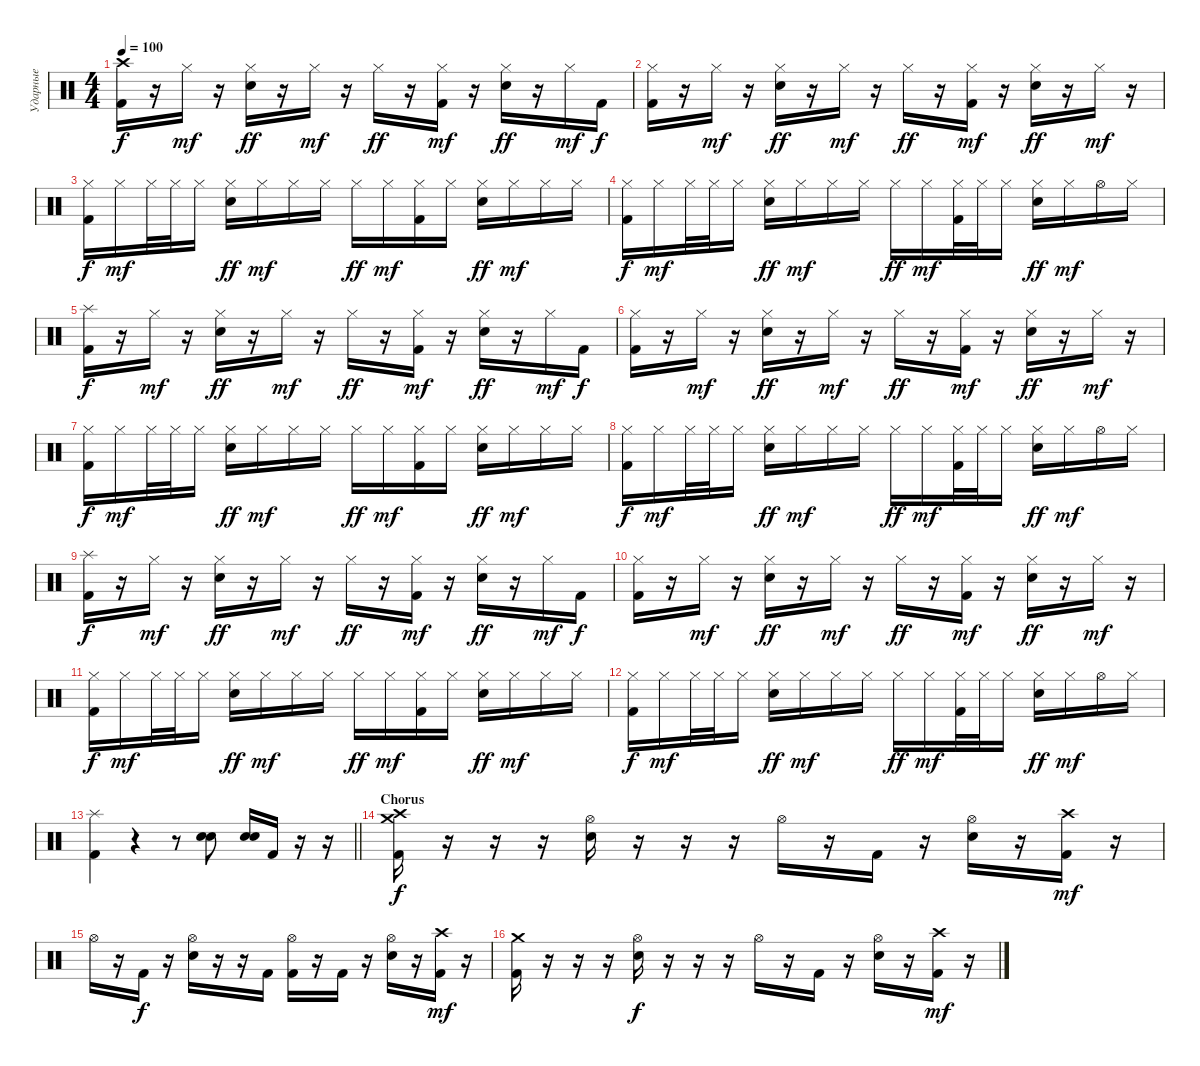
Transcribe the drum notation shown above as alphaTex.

\track ("Ударные" "Ударные") {instrument percussion}
\staff {score}
\articulation defaults
\ts (4 4)
\tempo 100
\clef neutral
\ks c
("Crash high (hit)" "Kick (hit) 2").16{dy f} r.16 "Hi-Hat (closed)".16{dy mf} r.16 ("Hi-Hat (closed)" "Electric Snare (hit)").16{dy ff} r.16 "Hi-Hat (closed)".16{dy mf} r.16 "Hi-Hat (closed)".16{dy ff} r.16 ("Hi-Hat (closed)" "Kick (hit) 2").16{dy mf} r.16 ("Hi-Hat (closed)" "Electric Snare (hit)").16{dy ff} r.16 "Hi-Hat (closed)".16{dy mf} "Kick (hit) 2".16{dy f} |
("Hi-Hat (closed)" "Kick (hit) 2").16 r.16 "Hi-Hat (closed)".16{dy mf} r.16 ("Hi-Hat (closed)" "Electric Snare (hit)").16{dy ff} r.16 "Hi-Hat (closed)".16{dy mf} r.16 "Hi-Hat (closed)".16{dy ff} r.16 ("Hi-Hat (closed)" "Kick (hit) 2").16{dy mf} r.16 ("Hi-Hat (closed)" "Electric Snare (hit)").16{dy ff} r.16 "Hi-Hat (closed)".16{dy mf} r.16 |
("Hi-Hat (closed)" "Kick (hit) 2").16{dy f} "Hi-Hat (closed)".16{dy mf} "Hi-Hat (closed)".32 "Hi-Hat (closed)".32 "Hi-Hat (closed)".16 ("Hi-Hat (closed)" "Electric Snare (hit)").16{dy ff} "Hi-Hat (closed)".16{dy mf} "Hi-Hat (closed)".16 "Hi-Hat (closed)".16 "Hi-Hat (closed)".16{dy ff} "Hi-Hat (closed)".16{dy mf} ("Hi-Hat (closed)" "Kick (hit) 2").16 "Hi-Hat (closed)".16 ("Hi-Hat (closed)" "Electric Snare (hit)").16{dy ff} "Hi-Hat (closed)".16{dy mf} "Hi-Hat (closed)".16 "Hi-Hat (closed)".16 |
("Hi-Hat (closed)" "Kick (hit) 2").16{dy f} "Hi-Hat (closed)".16{dy mf} "Hi-Hat (closed)".32 "Hi-Hat (closed)".32 "Hi-Hat (closed)".16 ("Hi-Hat (closed)" "Electric Snare (hit)").16{dy ff} "Hi-Hat (closed)".16{dy mf} "Hi-Hat (closed)".16 "Hi-Hat (closed)".16 "Hi-Hat (closed)".16{dy ff} "Hi-Hat (closed)".16{dy mf} ("Hi-Hat (closed)" "Kick (hit) 2").32 "Hi-Hat (closed)".32 "Hi-Hat (closed)".16 ("Hi-Hat (closed)" "Electric Snare (hit)").16{dy ff} "Hi-Hat (closed)".16{dy mf} "Hi-Hat (open)".16 "Hi-Hat (closed)".16 |
("Splash (hit)" "Kick (hit) 2").16{dy f} r.16 "Hi-Hat (closed)".16{dy mf} r.16 ("Hi-Hat (closed)" "Electric Snare (hit)").16{dy ff} r.16 "Hi-Hat (closed)".16{dy mf} r.16 "Hi-Hat (closed)".16{dy ff} r.16 ("Hi-Hat (closed)" "Kick (hit) 2").16{dy mf} r.16 ("Hi-Hat (closed)" "Electric Snare (hit)").16{dy ff} r.16 "Hi-Hat (closed)".16{dy mf} "Kick (hit) 2".16{dy f} |
("Hi-Hat (closed)" "Kick (hit) 2").16 r.16 "Hi-Hat (closed)".16{dy mf} r.16 ("Hi-Hat (closed)" "Electric Snare (hit)").16{dy ff} r.16 "Hi-Hat (closed)".16{dy mf} r.16 "Hi-Hat (closed)".16{dy ff} r.16 ("Hi-Hat (closed)" "Kick (hit) 2").16{dy mf} r.16 ("Hi-Hat (closed)" "Electric Snare (hit)").16{dy ff} r.16 "Hi-Hat (closed)".16{dy mf} r.16 |
("Hi-Hat (closed)" "Kick (hit) 2").16{dy f} "Hi-Hat (closed)".16{dy mf} "Hi-Hat (closed)".32 "Hi-Hat (closed)".32 "Hi-Hat (closed)".16 ("Hi-Hat (closed)" "Electric Snare (hit)").16{dy ff} "Hi-Hat (closed)".16{dy mf} "Hi-Hat (closed)".16 "Hi-Hat (closed)".16 "Hi-Hat (closed)".16{dy ff} "Hi-Hat (closed)".16{dy mf} ("Hi-Hat (closed)" "Kick (hit) 2").16 "Hi-Hat (closed)".16 ("Hi-Hat (closed)" "Electric Snare (hit)").16{dy ff} "Hi-Hat (closed)".16{dy mf} "Hi-Hat (closed)".16 "Hi-Hat (closed)".16 |
("Hi-Hat (closed)" "Kick (hit) 2").16{dy f} "Hi-Hat (closed)".16{dy mf} "Hi-Hat (closed)".32 "Hi-Hat (closed)".32 "Hi-Hat (closed)".16 ("Hi-Hat (closed)" "Electric Snare (hit)").16{dy ff} "Hi-Hat (closed)".16{dy mf} "Hi-Hat (closed)".16 "Hi-Hat (closed)".16 "Hi-Hat (closed)".16{dy ff} "Hi-Hat (closed)".16{dy mf} ("Hi-Hat (closed)" "Kick (hit) 2").32 "Hi-Hat (closed)".32 "Hi-Hat (closed)".16 ("Hi-Hat (closed)" "Electric Snare (hit)").16{dy ff} "Hi-Hat (closed)".16{dy mf} "Hi-Hat (open)".16 "Hi-Hat (closed)".16 |
("Splash (hit)" "Kick (hit) 2").16{dy f} r.16 "Hi-Hat (closed)".16{dy mf} r.16 ("Hi-Hat (closed)" "Electric Snare (hit)").16{dy ff} r.16 "Hi-Hat (closed)".16{dy mf} r.16 "Hi-Hat (closed)".16{dy ff} r.16 ("Hi-Hat (closed)" "Kick (hit) 2").16{dy mf} r.16 ("Hi-Hat (closed)" "Electric Snare (hit)").16{dy ff} r.16 "Hi-Hat (closed)".16{dy mf} "Kick (hit) 2".16{dy f} |
("Hi-Hat (closed)" "Kick (hit) 2").16 r.16 "Hi-Hat (closed)".16{dy mf} r.16 ("Hi-Hat (closed)" "Electric Snare (hit)").16{dy ff} r.16 "Hi-Hat (closed)".16{dy mf} r.16 "Hi-Hat (closed)".16{dy ff} r.16 ("Hi-Hat (closed)" "Kick (hit) 2").16{dy mf} r.16 ("Hi-Hat (closed)" "Electric Snare (hit)").16{dy ff} r.16 "Hi-Hat (closed)".16{dy mf} r.16 |
("Hi-Hat (closed)" "Kick (hit) 2").16{dy f} "Hi-Hat (closed)".16{dy mf} "Hi-Hat (closed)".32 "Hi-Hat (closed)".32 "Hi-Hat (closed)".16 ("Hi-Hat (closed)" "Electric Snare (hit)").16{dy ff} "Hi-Hat (closed)".16{dy mf} "Hi-Hat (closed)".16 "Hi-Hat (closed)".16 "Hi-Hat (closed)".16{dy ff} "Hi-Hat (closed)".16{dy mf} ("Hi-Hat (closed)" "Kick (hit) 2").16 "Hi-Hat (closed)".16 ("Hi-Hat (closed)" "Electric Snare (hit)").16{dy ff} "Hi-Hat (closed)".16{dy mf} "Hi-Hat (closed)".16 "Hi-Hat (closed)".16 |
("Hi-Hat (closed)" "Kick (hit) 2").16{dy f} "Hi-Hat (closed)".16{dy mf} "Hi-Hat (closed)".32 "Hi-Hat (closed)".32 "Hi-Hat (closed)".16 ("Hi-Hat (closed)" "Electric Snare (hit)").16{dy ff} "Hi-Hat (closed)".16{dy mf} "Hi-Hat (closed)".16 "Hi-Hat (closed)".16 "Hi-Hat (closed)".16{dy ff} "Hi-Hat (closed)".16{dy mf} ("Hi-Hat (closed)" "Kick (hit) 2").32 "Hi-Hat (closed)".32 "Hi-Hat (closed)".16 ("Hi-Hat (closed)" "Electric Snare (hit)").16{dy ff} "Hi-Hat (closed)".16{dy mf} "Hi-Hat (open)".16 "Hi-Hat (closed)".16 |
\barLineRight lightlight
("Splash (hit)" "Kick (hit) 2").4 r.4 r.8 ("Electric Snare (hit)" "Electric Snare (hit)").8 ("Electric Snare (hit)" "Electric Snare (hit)").16 "Kick (hit) 2".16 r.16 r.16 |
\section ("" "Chorus")
("Crash medium (hit)" "Crash high (hit)" "Kick (hit) 2").16{dy f} r.16 r.16 r.16 ("Hi-Hat (open)" "Electric Snare (hit)").16 r.16 r.16 r.16 "Hi-Hat (open)".16 r.16 "Kick (hit) 2".16 r.16 ("Hi-Hat (open)" "Electric Snare (hit)").16 r.16 ("Crash high (hit)" "Kick (hit) 2").16{dy mf} r.16 |
"Hi-Hat (open)".16 r.16 "Kick (hit) 2".16{dy f} r.16 ("Hi-Hat (open)" "Electric Snare (hit)").16 r.16 r.16 "Kick (hit) 2".16 ("Hi-Hat (open)" "Kick (hit) 2").16 r.16 "Kick (hit) 2".16 r.16 ("Hi-Hat (open)" "Electric Snare (hit)").16 r.16 ("Crash high (hit)" "Kick (hit) 2").16{dy mf} r.16 |
("Crash medium (hit)" "Kick (hit) 2").16 r.16 r.16 r.16 ("Hi-Hat (open)" "Electric Snare (hit)").16{dy f} r.16 r.16 r.16 "Hi-Hat (open)".16 r.16 "Kick (hit) 2".16 r.16 ("Hi-Hat (open)" "Electric Snare (hit)").16 r.16 ("Crash high (hit)" "Kick (hit) 2").16{dy mf} r.16
